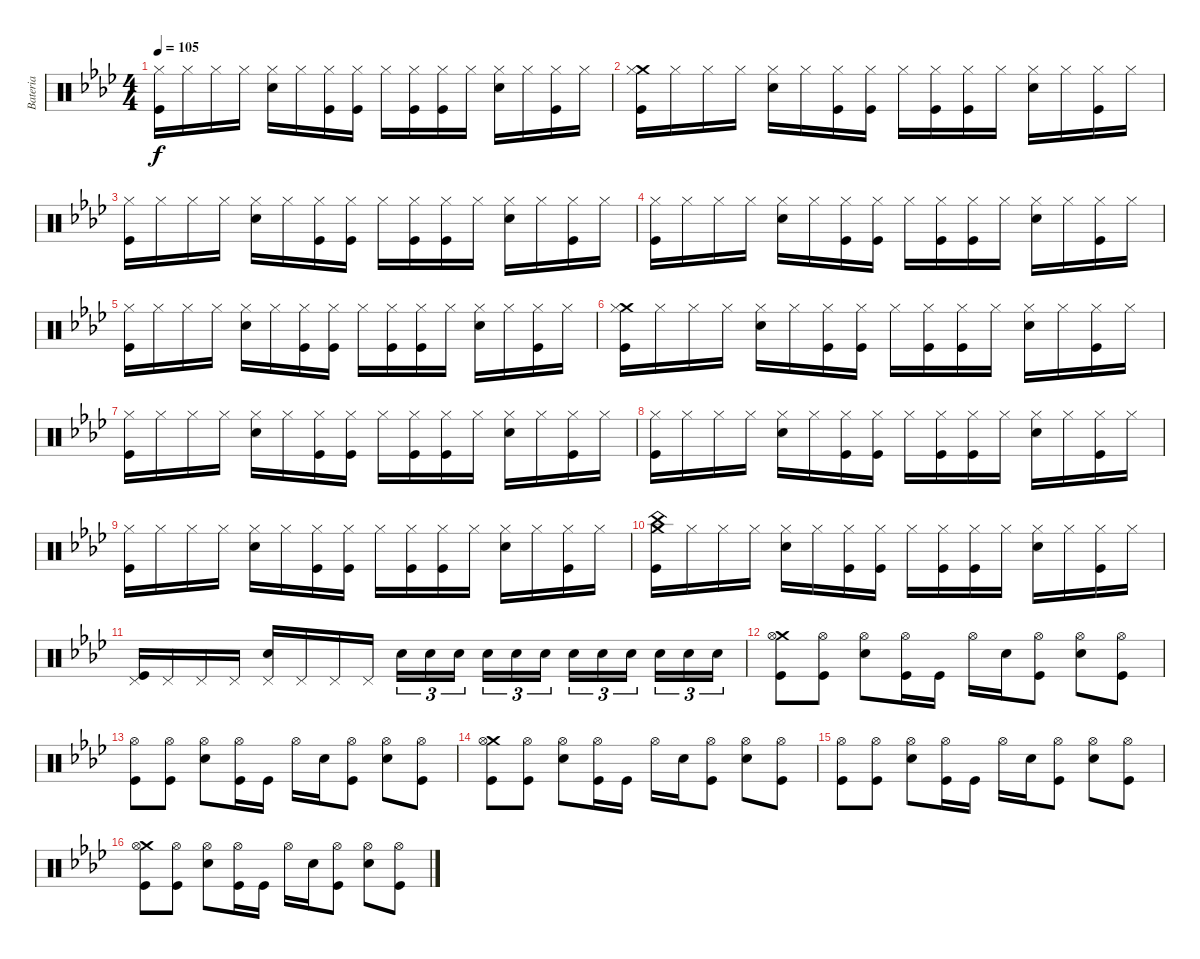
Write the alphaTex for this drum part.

\track ("Bateria" "Bateria") {instrument percussion}
\staff {score}
\articulation defaults
\ts (4 4)
\tempo 105
\clef neutral
\ks fminor
("Kick (hit)" "Hi-Hat (closed)").16{dy f} "Hi-Hat (closed)".16 "Hi-Hat (closed)".16 "Hi-Hat (closed)".16 ("Snare (hit) 2" "Hi-Hat (closed)").16 "Hi-Hat (closed)".16 ("Hi-Hat (closed)" "Kick (hit)").16 ("Hi-Hat (closed)" "Kick (hit)").16 "Hi-Hat (closed)".16 ("Hi-Hat (closed)" "Kick (hit)").16 ("Hi-Hat (closed)" "Kick (hit)").16 "Hi-Hat (closed)".16 ("Hi-Hat (closed)" "Snare (hit) 2").16 "Hi-Hat (closed)".16 ("Hi-Hat (closed)" "Kick (hit)").16 "Hi-Hat (closed)".16 |
("Crash medium (hit)" "Kick (hit)" "Hi-Hat (closed)").16 "Hi-Hat (closed)".16 "Hi-Hat (closed)".16 "Hi-Hat (closed)".16 ("Snare (hit) 2" "Hi-Hat (closed)").16 "Hi-Hat (closed)".16 ("Hi-Hat (closed)" "Kick (hit)").16 ("Hi-Hat (closed)" "Kick (hit)").16 "Hi-Hat (closed)".16 ("Kick (hit)" "Hi-Hat (closed)").16 ("Hi-Hat (closed)" "Kick (hit)").16 "Hi-Hat (closed)".16 ("Hi-Hat (closed)" "Snare (hit) 2").16 "Hi-Hat (closed)".16 ("Hi-Hat (closed)" "Kick (hit)").16 "Hi-Hat (closed)".16 |
("Kick (hit)" "Hi-Hat (closed)").16 "Hi-Hat (closed)".16 "Hi-Hat (closed)".16 "Hi-Hat (closed)".16 ("Snare (hit) 2" "Hi-Hat (closed)").16 "Hi-Hat (closed)".16 ("Hi-Hat (closed)" "Kick (hit)").16 ("Hi-Hat (closed)" "Kick (hit)").16 "Hi-Hat (closed)".16 ("Hi-Hat (closed)" "Kick (hit)").16 ("Hi-Hat (closed)" "Kick (hit)").16 "Hi-Hat (closed)".16 ("Hi-Hat (closed)" "Snare (hit) 2").16 "Hi-Hat (closed)".16 ("Hi-Hat (closed)" "Kick (hit)").16 "Hi-Hat (closed)".16 |
("Kick (hit)" "Hi-Hat (closed)").16 "Hi-Hat (closed)".16 "Hi-Hat (closed)".16 "Hi-Hat (closed)".16 ("Snare (hit) 2" "Hi-Hat (closed)").16 "Hi-Hat (closed)".16 ("Hi-Hat (closed)" "Kick (hit)").16 ("Hi-Hat (closed)" "Kick (hit)").16 "Hi-Hat (closed)".16 ("Kick (hit)" "Hi-Hat (closed)").16 ("Hi-Hat (closed)" "Kick (hit)").16 "Hi-Hat (closed)".16 ("Hi-Hat (closed)" "Snare (hit) 2").16 "Hi-Hat (closed)".16 ("Hi-Hat (closed)" "Kick (hit)").16 "Hi-Hat (closed)".16 |
("Kick (hit)" "Hi-Hat (closed)").16 "Hi-Hat (closed)".16 "Hi-Hat (closed)".16 "Hi-Hat (closed)".16 ("Snare (hit) 2" "Hi-Hat (closed)").16 "Hi-Hat (closed)".16 ("Hi-Hat (closed)" "Kick (hit)").16 ("Hi-Hat (closed)" "Kick (hit)").16 "Hi-Hat (closed)".16 ("Hi-Hat (closed)" "Kick (hit)").16 ("Hi-Hat (closed)" "Kick (hit)").16 "Hi-Hat (closed)".16 ("Hi-Hat (closed)" "Snare (hit) 2").16 "Hi-Hat (closed)".16 ("Hi-Hat (closed)" "Kick (hit)").16 "Hi-Hat (closed)".16 |
("Crash medium (hit)" "Kick (hit)" "Hi-Hat (closed)").16 "Hi-Hat (closed)".16 "Hi-Hat (closed)".16 "Hi-Hat (closed)".16 ("Snare (hit) 2" "Hi-Hat (closed)").16 "Hi-Hat (closed)".16 ("Hi-Hat (closed)" "Kick (hit)").16 ("Hi-Hat (closed)" "Kick (hit)").16 "Hi-Hat (closed)".16 ("Kick (hit)" "Hi-Hat (closed)").16 ("Hi-Hat (closed)" "Kick (hit)").16 "Hi-Hat (closed)".16 ("Hi-Hat (closed)" "Snare (hit) 2").16 "Hi-Hat (closed)".16 ("Hi-Hat (closed)" "Kick (hit)").16 "Hi-Hat (closed)".16 |
("Kick (hit)" "Hi-Hat (closed)").16 "Hi-Hat (closed)".16 "Hi-Hat (closed)".16 "Hi-Hat (closed)".16 ("Snare (hit) 2" "Hi-Hat (closed)").16 "Hi-Hat (closed)".16 ("Hi-Hat (closed)" "Kick (hit)").16 ("Hi-Hat (closed)" "Kick (hit)").16 "Hi-Hat (closed)".16 ("Hi-Hat (closed)" "Kick (hit)").16 ("Hi-Hat (closed)" "Kick (hit)").16 "Hi-Hat (closed)".16 ("Hi-Hat (closed)" "Snare (hit) 2").16 "Hi-Hat (closed)".16 ("Hi-Hat (closed)" "Kick (hit)").16 "Hi-Hat (closed)".16 |
("Kick (hit)" "Hi-Hat (closed)").16 "Hi-Hat (closed)".16 "Hi-Hat (closed)".16 "Hi-Hat (closed)".16 ("Snare (hit) 2" "Hi-Hat (closed)").16 "Hi-Hat (closed)".16 ("Hi-Hat (closed)" "Kick (hit)").16 ("Hi-Hat (closed)" "Kick (hit)").16 "Hi-Hat (closed)".16 ("Kick (hit)" "Hi-Hat (closed)").16 ("Hi-Hat (closed)" "Kick (hit)").16 "Hi-Hat (closed)".16 ("Hi-Hat (closed)" "Snare (hit) 2").16 "Hi-Hat (closed)".16 ("Hi-Hat (closed)" "Kick (hit)").16 "Hi-Hat (closed)".16 |
("Kick (hit)" "Hi-Hat (closed)").16 "Hi-Hat (closed)".16 "Hi-Hat (closed)".16 "Hi-Hat (closed)".16 ("Snare (hit) 2" "Hi-Hat (closed)").16 "Hi-Hat (closed)".16 ("Hi-Hat (closed)" "Kick (hit)").16 ("Hi-Hat (closed)" "Kick (hit)").16 "Hi-Hat (closed)".16 ("Hi-Hat (closed)" "Kick (hit)").16 ("Hi-Hat (closed)" "Kick (hit)").16 "Hi-Hat (closed)".16 ("Hi-Hat (closed)" "Snare (hit) 2").16 "Hi-Hat (closed)".16 ("Hi-Hat (closed)" "Kick (hit)").16 "Hi-Hat (closed)".16 |
("Kick (hit)" "China (hit)" "Crash medium (hit)").16 "Hi-Hat (closed)".16 "Hi-Hat (closed)".16 "Hi-Hat (closed)".16 ("Snare (hit) 2" "Hi-Hat (closed)").16 "Hi-Hat (closed)".16 ("Hi-Hat (closed)" "Kick (hit)").16 ("Hi-Hat (closed)" "Kick (hit)").16 "Hi-Hat (closed)".16 ("Hi-Hat (closed)" "Kick (hit)").16 ("Hi-Hat (closed)" "Kick (hit)").16 "Hi-Hat (closed)".16 ("Hi-Hat (closed)" "Snare (hit) 2").16 "Hi-Hat (closed)".16 ("Hi-Hat (closed)" "Kick (hit)").16 "Hi-Hat (closed)".16 |
("Pedal Hi-Hat (hit)" "Kick (hit)").16 "Pedal Hi-Hat (hit)".16 "Pedal Hi-Hat (hit)".16 "Pedal Hi-Hat (hit)".16 ("Pedal Hi-Hat (hit)" "Snare (hit) 2").16 "Pedal Hi-Hat (hit)".16 "Pedal Hi-Hat (hit)".16 "Pedal Hi-Hat (hit)".16 "Snare (hit) 2".16{tu (3 2)} "Snare (hit) 2".16{tu (3 2)} "Snare (hit) 2".16{tu (3 2) beam splitsecondary} "Snare (hit) 2".16{tu (3 2)} "Snare (hit) 2".16{tu (3 2)} "Snare (hit) 2".16{tu (3 2)} "Snare (hit) 2".16{tu (3 2)} "Snare (hit) 2".16{tu (3 2)} "Snare (hit) 2".16{tu (3 2) beam splitsecondary} "Snare (hit) 2".16{tu (3 2)} "Snare (hit) 2".16{tu (3 2)} "Snare (hit) 2".16{tu (3 2)} |
("Crash medium (hit)" "Kick (hit)" "Hi-Hat (open)").8 ("Kick (hit)" "Hi-Hat (open)").8 ("Snare (hit) 2" "Hi-Hat (open)").8 ("Kick (hit)" "Hi-Hat (open)").16 "Kick (hit)".16 "Hi-Hat (open)".16 "Snare (hit) 2".16 ("Kick (hit)" "Hi-Hat (open)").8 ("Snare (hit) 2" "Hi-Hat (open)").8 ("Kick (hit)" "Hi-Hat (open)").8 |
("Kick (hit)" "Hi-Hat (open)").8 ("Kick (hit)" "Hi-Hat (open)").8 ("Snare (hit) 2" "Hi-Hat (open)").8 ("Kick (hit)" "Hi-Hat (open)").16 "Kick (hit)".16 "Hi-Hat (open)".16 "Snare (hit) 2".16 ("Kick (hit)" "Hi-Hat (open)").8 ("Snare (hit) 2" "Hi-Hat (open)").8 ("Kick (hit)" "Hi-Hat (open)").8 |
("Crash medium (hit)" "Kick (hit)" "Hi-Hat (open)").8 ("Kick (hit)" "Hi-Hat (open)").8 ("Snare (hit) 2" "Hi-Hat (open)").8 ("Kick (hit)" "Hi-Hat (open)").16 "Kick (hit)".16 "Hi-Hat (open)".16 "Snare (hit) 2".16 ("Kick (hit)" "Hi-Hat (open)").8 ("Snare (hit) 2" "Hi-Hat (open)").8 ("Kick (hit)" "Hi-Hat (open)").8 |
("Kick (hit)" "Hi-Hat (open)").8 ("Kick (hit)" "Hi-Hat (open)").8 ("Snare (hit) 2" "Hi-Hat (open)").8 ("Kick (hit)" "Hi-Hat (open)").16 "Kick (hit)".16 "Hi-Hat (open)".16 "Snare (hit) 2".16 ("Kick (hit)" "Hi-Hat (open)").8 ("Snare (hit) 2" "Hi-Hat (open)").8 ("Kick (hit)" "Hi-Hat (open)").8 |
("Crash medium (hit)" "Kick (hit)" "Hi-Hat (open)").8 ("Kick (hit)" "Hi-Hat (open)").8 ("Snare (hit) 2" "Hi-Hat (open)").8 ("Kick (hit)" "Hi-Hat (open)").16 "Kick (hit)".16 "Hi-Hat (open)".16 "Snare (hit) 2".16 ("Kick (hit)" "Hi-Hat (open)").8 ("Snare (hit) 2" "Hi-Hat (open)").8 ("Kick (hit)" "Hi-Hat (open)").8
